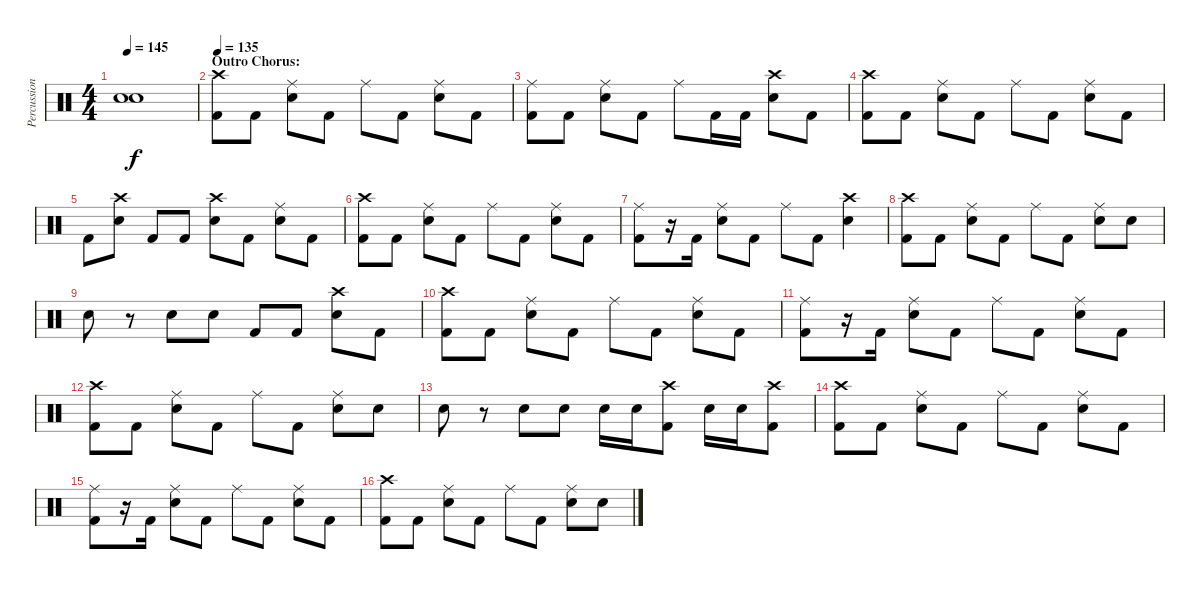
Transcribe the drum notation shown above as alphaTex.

\track ("Percussion" "Percussion") {instrument percussion}
\staff {score}
\articulation defaults
\ts (4 4)
\tempo 145
\clef neutral
\ks c
("Snare (hit)"{t} "Snare (hit)"{t}).1{dy f} |
\section ("" "Outro Chorus:")
\tempo 135
("Crash high (hit)" "Kick (hit) 2").8 "Kick (hit) 2".8 ("Ride (middle)" "Electric Snare (hit)").8 "Kick (hit) 2".8 "Ride (middle)".8 "Kick (hit) 2".8 ("Ride (middle)" "Electric Snare (hit)").8 "Kick (hit) 2".8 |
("Ride (middle)" "Kick (hit) 2").8 "Kick (hit) 2".8 ("Ride (middle)" "Electric Snare (hit)").8 "Kick (hit) 2".8 "Ride (middle)".8 "Kick (hit) 2".16 "Kick (hit) 2".16 ("Crash high (hit)" "Electric Snare (hit)").8 "Kick (hit) 2".8 |
("Crash high (hit)" "Kick (hit) 2").8 "Kick (hit) 2".8 ("Ride (middle)" "Electric Snare (hit)").8 "Kick (hit) 2".8 "Ride (middle)".8 "Kick (hit) 2".8 ("Ride (middle)" "Electric Snare (hit)").8 "Kick (hit) 2".8 |
"Kick (hit) 2".8 ("Crash high (hit)" "Electric Snare (hit)").8 "Kick (hit) 2".8 "Kick (hit) 2".8 ("Crash high (hit)" "Electric Snare (hit)").8 "Kick (hit) 2".8 ("Ride (middle)" "Electric Snare (hit)").8 "Kick (hit) 2".8 |
("Crash high (hit)" "Kick (hit) 2").8 "Kick (hit) 2".8 ("Ride (middle)" "Electric Snare (hit)").8 "Kick (hit) 2".8 "Ride (middle)".8 "Kick (hit) 2".8 ("Ride (middle)" "Electric Snare (hit)").8 "Kick (hit) 2".8 |
("Ride (middle)" "Kick (hit) 2").8 r.16 "Kick (hit) 2".16 ("Ride (middle)" "Electric Snare (hit)").8 "Kick (hit) 2".8 "Ride (middle)".8 "Kick (hit) 2".8 ("Crash high (hit)" "Electric Snare (hit)").4 |
("Crash high (hit)" "Kick (hit) 2").8 "Kick (hit) 2".8 ("Ride (middle)" "Electric Snare (hit)").8 "Kick (hit) 2".8 "Ride (middle)".8 "Kick (hit) 2".8 ("Ride (middle)" "Electric Snare (hit)").8 "Electric Snare (hit)".8 |
"Electric Snare (hit)".8 r.8 "Electric Snare (hit)".8 "Electric Snare (hit)".8 "Kick (hit) 2".8 "Kick (hit) 2".8 ("Crash high (hit)" "Electric Snare (hit)").8 "Kick (hit) 2".8 |
("Crash high (hit)" "Kick (hit) 2").8 "Kick (hit) 2".8 ("Ride (middle)" "Electric Snare (hit)").8 "Kick (hit) 2".8 "Ride (middle)".8 "Kick (hit) 2".8 ("Ride (middle)" "Electric Snare (hit)").8 "Kick (hit) 2".8 |
("Ride (middle)" "Kick (hit) 2").8 r.16 "Kick (hit) 2".16 ("Ride (middle)" "Electric Snare (hit)").8 "Kick (hit) 2".8 "Ride (middle)".8 "Kick (hit) 2".8 ("Ride (middle)" "Electric Snare (hit)").8 "Kick (hit) 2".8 |
("Crash high (hit)" "Kick (hit) 2").8 "Kick (hit) 2".8 ("Ride (middle)" "Electric Snare (hit)").8 "Kick (hit) 2".8 "Ride (middle)".8 "Kick (hit) 2".8 ("Ride (middle)" "Electric Snare (hit)").8 "Electric Snare (hit)".8 |
"Electric Snare (hit)".8 r.8 "Electric Snare (hit)".8 "Electric Snare (hit)".8 "Electric Snare (hit)".16 "Electric Snare (hit)".16 ("Crash high (hit)" "Kick (hit) 2").8 "Electric Snare (hit)".16 "Electric Snare (hit)".16 ("Crash high (hit)" "Kick (hit) 2").8 |
("Crash high (hit)" "Kick (hit) 2").8 "Kick (hit) 2".8 ("Ride (middle)" "Electric Snare (hit)").8 "Kick (hit) 2".8 "Ride (middle)".8 "Kick (hit) 2".8 ("Ride (middle)" "Electric Snare (hit)").8 "Kick (hit) 2".8 |
("Ride (middle)" "Kick (hit) 2").8 r.16 "Kick (hit) 2".16 ("Ride (middle)" "Electric Snare (hit)").8 "Kick (hit) 2".8 "Ride (middle)".8 "Kick (hit) 2".8 ("Ride (middle)" "Electric Snare (hit)").8 "Kick (hit) 2".8 |
("Crash high (hit)" "Kick (hit) 2").8 "Kick (hit) 2".8 ("Ride (middle)" "Electric Snare (hit)").8 "Kick (hit) 2".8 "Ride (middle)".8 "Kick (hit) 2".8 ("Ride (middle)" "Electric Snare (hit)").8 "Electric Snare (hit)".8
